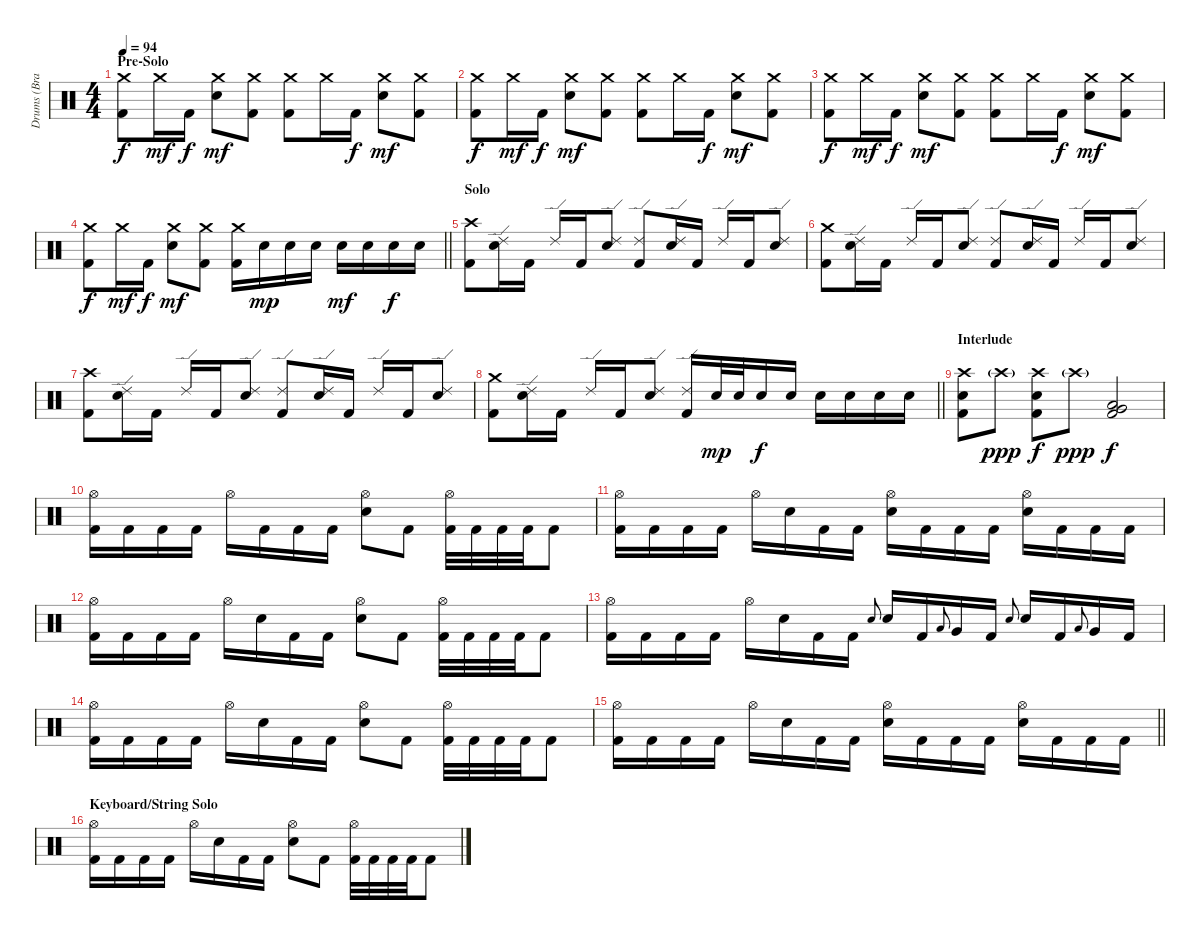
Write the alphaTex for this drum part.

\track ("Drums (Brandon Saller)" "Drums (Bra") {instrument percussion}
\staff {score}
\articulation defaults
\ts (4 4)
\section ("" "Pre-Solo")
\tempo 94
\clef neutral
\ks c
("Crash medium (hit)" "Kick (hit) 2").8{dy f} "Crash medium (hit)".16{dy mf} "Kick (hit) 2".16{dy f} ("Crash medium (hit)" "Electric Snare (hit)").8{dy mf} ("Crash medium (hit)" "Kick (hit) 2").8 ("Crash medium (hit)" "Kick (hit) 2").8 "Crash medium (hit)".16 "Kick (hit) 2".16{dy f} ("Crash medium (hit)" "Electric Snare (hit)").8{dy mf} ("Crash medium (hit)" "Kick (hit) 2").8 |
("Crash medium (hit)" "Kick (hit) 2").8{dy f} "Crash medium (hit)".16{dy mf} "Kick (hit) 2".16{dy f} ("Crash medium (hit)" "Electric Snare (hit)").8{dy mf} ("Crash medium (hit)" "Kick (hit) 2").8 ("Crash medium (hit)" "Kick (hit) 2").8 "Crash medium (hit)".16 "Kick (hit) 2".16{dy f} ("Crash medium (hit)" "Electric Snare (hit)").8{dy mf} ("Crash medium (hit)" "Kick (hit) 2").8 |
("Crash medium (hit)" "Kick (hit) 2").8{dy f} "Crash medium (hit)".16{dy mf} "Kick (hit) 2".16{dy f} ("Crash medium (hit)" "Electric Snare (hit)").8{dy mf} ("Crash medium (hit)" "Kick (hit) 2").8 ("Crash medium (hit)" "Kick (hit) 2").8 "Crash medium (hit)".16 "Kick (hit) 2".16{dy f} ("Crash medium (hit)" "Electric Snare (hit)").8{dy mf} ("Crash medium (hit)" "Kick (hit) 2").8 |
\barLineRight lightlight
("Crash medium (hit)" "Kick (hit) 2").8{dy f} "Crash medium (hit)".16{dy mf} "Kick (hit) 2".16{dy f} ("Crash medium (hit)" "Electric Snare (hit)").8{dy mf} ("Crash medium (hit)" "Kick (hit) 2").8 ("Crash medium (hit)" "Kick (hit) 2").16 "Electric Snare (hit)".16{dy mp} "Electric Snare (hit)".16 "Electric Snare (hit)".16 "Electric Snare (hit)".16{dy mf} "Electric Snare (hit)".16 "Electric Snare (hit)".16{dy f} "Electric Snare (hit)".16 |
\section ("" "Solo")
("Crash high (hit)" "Kick (hit) 2").8 ("Ride (edge) 2" "Electric Snare (hit)").16 "Kick (hit) 2".16 "Ride (edge) 2".16 "Kick (hit) 2".16 ("Ride (edge) 2" "Electric Snare (hit)").8 ("Ride (edge) 2" "Kick (hit) 2").8 ("Ride (edge) 2" "Electric Snare (hit)").16 "Kick (hit) 2".16 "Ride (edge) 2".16 "Kick (hit) 2".16 ("Ride (edge) 2" "Electric Snare (hit)").8 |
("Crash medium (hit)" "Kick (hit) 2").8 ("Ride (edge) 2" "Electric Snare (hit)").16 "Kick (hit) 2".16 "Ride (edge) 2".16 "Kick (hit) 2".16 ("Ride (edge) 2" "Electric Snare (hit)").8 ("Ride (edge) 2" "Kick (hit) 2").8 ("Ride (edge) 2" "Electric Snare (hit)").16 "Kick (hit) 2".16 "Ride (edge) 2".16 "Kick (hit) 2".16 ("Ride (edge) 2" "Electric Snare (hit)").8 |
("Crash high (hit)" "Kick (hit) 2").8 ("Ride (edge) 2" "Electric Snare (hit)").16 "Kick (hit) 2".16 "Ride (edge) 2".16 "Kick (hit) 2".16 ("Ride (edge) 2" "Electric Snare (hit)").8 ("Ride (edge) 2" "Kick (hit) 2").8 ("Ride (edge) 2" "Electric Snare (hit)").16 "Kick (hit) 2".16 "Ride (edge) 2".16 "Kick (hit) 2".16 ("Ride (edge) 2" "Electric Snare (hit)").8 |
\barLineRight lightlight
("Crash medium (hit)" "Kick (hit) 2").8 ("Ride (edge) 2" "Electric Snare (hit)").16 "Kick (hit) 2".16 "Ride (edge) 2".16 "Kick (hit) 2".16 ("Ride (edge) 2" "Electric Snare (hit)").8 ("Ride (edge) 2" "Kick (hit) 2").16 "Electric Snare (hit)".32{dy mp} "Electric Snare (hit)".32 "Electric Snare (hit)".16{dy f} "Electric Snare (hit)".16 "Electric Snare (hit)".16 "Electric Snare (hit)".16 "Electric Snare (hit)".16 "Electric Snare (hit)".16 |
\section ("" "Interlude")
("Crash high (hit)" "Electric Snare (hit)" "Kick (hit) 2").8 "Crash high (hit)"{g}.8{dy ppp} ("Crash high (hit)" "Electric Snare (hit)" "Kick (hit) 2").8{dy f} "Crash high (hit)"{g}.8{dy ppp} ("Very Low Tom (hit)" "Low Floor Tom (hit)" "Kick (hit) 2").2{dy f} |
("Hi-Hat (open)" "Kick (hit) 2").16 "Kick (hit) 2".16 "Kick (hit) 2".16 "Kick (hit) 2".16 "Hi-Hat (open)".16 "Kick (hit) 2".16 "Kick (hit) 2".16 "Kick (hit) 2".16 ("Hi-Hat (open)" "Electric Snare (hit)").8 "Kick (hit) 2".8 ("Hi-Hat (open)" "Kick (hit) 2").32 "Kick (hit) 2".32 "Kick (hit) 2".32 "Kick (hit) 2".32 "Kick (hit) 2".8 |
("Hi-Hat (open)" "Kick (hit) 2").16 "Kick (hit) 2".16 "Kick (hit) 2".16 "Kick (hit) 2".16 "Hi-Hat (open)".16 "Electric Snare (hit)".16 "Kick (hit) 2".16 "Kick (hit) 2".16 ("Hi-Hat (open)" "Electric Snare (hit)").16 "Kick (hit) 2".16 "Kick (hit) 2".16 "Kick (hit) 2".16 ("Hi-Hat (open)" "Electric Snare (hit)").16 "Kick (hit) 2".16 "Kick (hit) 2".16 "Kick (hit) 2".16 |
("Hi-Hat (open)" "Kick (hit) 2").16 "Kick (hit) 2".16 "Kick (hit) 2".16 "Kick (hit) 2".16 "Hi-Hat (open)".16 "Electric Snare (hit)".16 "Kick (hit) 2".16 "Kick (hit) 2".16 ("Hi-Hat (open)" "Electric Snare (hit)").8 "Kick (hit) 2".8 ("Hi-Hat (open)" "Kick (hit) 2").32 "Kick (hit) 2".32 "Kick (hit) 2".32 "Kick (hit) 2".32 "Kick (hit) 2".8 |
("Hi-Hat (open)" "Kick (hit) 2").16 "Kick (hit) 2".16 "Kick (hit) 2".16 "Kick (hit) 2".16 "Hi-Hat (open)".16 "Electric Snare (hit)".16 "Kick (hit) 2".16 "Kick (hit) 2".16 "Electric Snare (hit)"{h}.8{gr onbeat} "Electric Snare (hit)".16 "Kick (hit) 2".16 "Low Tom (hit)"{h}.8{gr onbeat} "Very Low Tom (hit)".16 "Kick (hit) 2".16 "Electric Snare (hit)"{h}.8{gr onbeat} "Electric Snare (hit)".16 "Kick (hit) 2".16 "Low Tom (hit)"{h}.8{gr onbeat} "Very Low Tom (hit)".16 "Kick (hit) 2".16 |
("Hi-Hat (open)" "Kick (hit) 2").16 "Kick (hit) 2".16 "Kick (hit) 2".16 "Kick (hit) 2".16 "Hi-Hat (open)".16 "Electric Snare (hit)".16 "Kick (hit) 2".16 "Kick (hit) 2".16 ("Hi-Hat (open)" "Electric Snare (hit)").8 "Kick (hit) 2".8 ("Hi-Hat (open)" "Kick (hit) 2").32 "Kick (hit) 2".32 "Kick (hit) 2".32 "Kick (hit) 2".32 "Kick (hit) 2".8 |
\barLineRight lightlight
("Hi-Hat (open)" "Kick (hit) 2").16 "Kick (hit) 2".16 "Kick (hit) 2".16 "Kick (hit) 2".16 "Hi-Hat (open)".16 "Electric Snare (hit)".16 "Kick (hit) 2".16 "Kick (hit) 2".16 ("Hi-Hat (open)" "Electric Snare (hit)").16 "Kick (hit) 2".16 "Kick (hit) 2".16 "Kick (hit) 2".16 ("Hi-Hat (open)" "Electric Snare (hit)").16 "Kick (hit) 2".16 "Kick (hit) 2".16 "Kick (hit) 2".16 |
\section ("" "Keyboard/String Solo")
("Hi-Hat (open)" "Kick (hit) 2").16 "Kick (hit) 2".16 "Kick (hit) 2".16 "Kick (hit) 2".16 "Hi-Hat (open)".16 "Electric Snare (hit)".16 "Kick (hit) 2".16 "Kick (hit) 2".16 ("Hi-Hat (open)" "Electric Snare (hit)").8 "Kick (hit) 2".8 ("Hi-Hat (open)" "Kick (hit) 2").32 "Kick (hit) 2".32 "Kick (hit) 2".32 "Kick (hit) 2".32 "Kick (hit) 2".8
